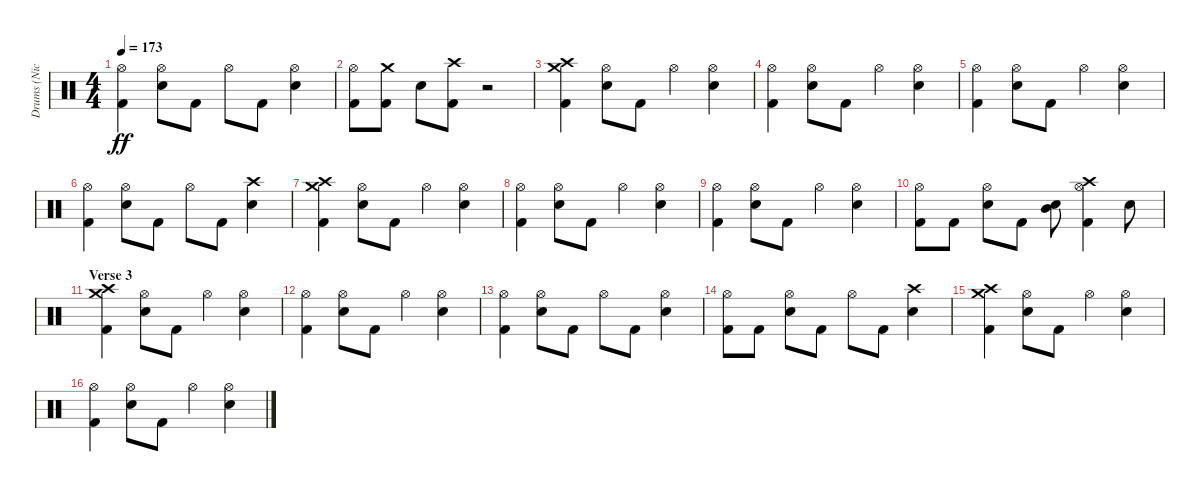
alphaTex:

\track ("Drums (Nick Oshiro)" "Drums (Nic") {instrument percussion}
\staff {score}
\articulation defaults
\ts (4 4)
\tempo 173
\clef neutral
\ks c
("Hi-Hat (open)" "Kick (hit) 2").4{dy ff} ("Hi-Hat (open)" "Snare (hit) 2").8 "Kick (hit) 2".8 "Hi-Hat (open)".8 "Kick (hit) 2".8 ("Hi-Hat (open)" "Snare (hit) 2").4 |
("Hi-Hat (open)" "Kick (hit) 2").8 ("Crash medium (hit)" "Kick (hit) 2").8 "Snare (hit) 2".8 ("Crash high (hit)" "Kick (hit) 2").8 r.2 |
("Crash medium (hit)" "Crash high (hit)" "Kick (hit) 2").4 ("Hi-Hat (open)" "Snare (hit) 2").8 "Kick (hit) 2".8 "Hi-Hat (open)".4 ("Hi-Hat (open)" "Snare (hit) 2").4 |
("Hi-Hat (open)" "Kick (hit) 2").4 ("Hi-Hat (open)" "Snare (hit) 2").8 "Kick (hit) 2".8 "Hi-Hat (open)".4 ("Hi-Hat (open)" "Snare (hit) 2").4 |
("Hi-Hat (open)" "Kick (hit) 2").4 ("Hi-Hat (open)" "Snare (hit) 2").8 "Kick (hit) 2".8 "Hi-Hat (open)".4 ("Hi-Hat (open)" "Snare (hit) 2").4 |
("Hi-Hat (open)" "Kick (hit) 2").4 ("Hi-Hat (open)" "Snare (hit) 2").8 "Kick (hit) 2".8 "Hi-Hat (open)".8 "Kick (hit) 2".8 ("Crash high (hit)" "Snare (hit) 2").4 |
("Crash medium (hit)" "Crash high (hit)" "Kick (hit) 2").4 ("Hi-Hat (open)" "Snare (hit) 2").8 "Kick (hit) 2".8 "Hi-Hat (open)".4 ("Hi-Hat (open)" "Snare (hit) 2").4 |
("Hi-Hat (open)" "Kick (hit) 2").4 ("Hi-Hat (open)" "Snare (hit) 2").8 "Kick (hit) 2".8 "Hi-Hat (open)".4 ("Hi-Hat (open)" "Snare (hit) 2").4 |
("Hi-Hat (open)" "Kick (hit) 2").4 ("Hi-Hat (open)" "Snare (hit) 2").8 "Kick (hit) 2".8 "Hi-Hat (open)".4 ("Hi-Hat (open)" "Snare (hit) 2").4 |
("Hi-Hat (open)" "Kick (hit) 2").8 "Kick (hit) 2".8 ("Hi-Hat (open)" "Snare (hit) 2").8 "Kick (hit) 2".8 ("Mid Tom (hit)" "Snare (hit) 2").8 ("Crash high (hit)" "Hi-Hat (open)" "Kick (hit) 2").4 "Snare (hit) 2".8 |
\section ("" "Verse 3")
("Crash medium (hit)" "Crash high (hit)" "Kick (hit) 2").4 ("Hi-Hat (open)" "Snare (hit) 2").8 "Kick (hit) 2".8 "Hi-Hat (open)".4 ("Hi-Hat (open)" "Snare (hit) 2").4 |
("Hi-Hat (open)" "Kick (hit) 2").4 ("Hi-Hat (open)" "Snare (hit) 2").8 "Kick (hit) 2".8 "Hi-Hat (open)".4 ("Hi-Hat (open)" "Snare (hit) 2").4 |
("Hi-Hat (open)" "Kick (hit) 2").4 ("Hi-Hat (open)" "Snare (hit) 2").8 "Kick (hit) 2".8 "Hi-Hat (open)".8 "Kick (hit) 2".8 ("Hi-Hat (open)" "Snare (hit) 2").4 |
("Hi-Hat (open)" "Kick (hit) 2").8 "Kick (hit) 2".8 ("Hi-Hat (open)" "Snare (hit) 2").8 "Kick (hit) 2".8 "Hi-Hat (open)".8 "Kick (hit) 2".8 ("Crash high (hit)" "Snare (hit) 2").4 |
("Crash medium (hit)" "Crash high (hit)" "Kick (hit) 2").4 ("Hi-Hat (open)" "Snare (hit) 2").8 "Kick (hit) 2".8 "Hi-Hat (open)".4 ("Hi-Hat (open)" "Snare (hit) 2").4 |
("Hi-Hat (open)" "Kick (hit) 2").4 ("Hi-Hat (open)" "Snare (hit) 2").8 "Kick (hit) 2".8 "Hi-Hat (open)".4 ("Hi-Hat (open)" "Snare (hit) 2").4
